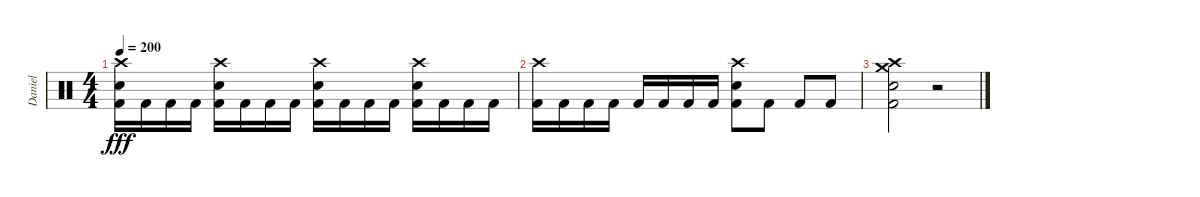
\track ("Daniel" "Daniel") {instrument percussion}
\staff {score}
\articulation defaults
\ts (4 4)
\tempo 200
\clef neutral
\ks c
("Crash high (hit)" "Electric Snare (hit)" "Kick (hit) 2").16{dy fff} "Kick (hit) 2".16 "Kick (hit) 2".16 "Kick (hit) 2".16 ("Crash high (hit)" "Electric Snare (hit)" "Kick (hit) 2").16 "Kick (hit) 2".16 "Kick (hit) 2".16 "Kick (hit) 2".16 ("Crash high (hit)" "Electric Snare (hit)" "Kick (hit) 2").16 "Kick (hit) 2".16 "Kick (hit) 2".16 "Kick (hit) 2".16 ("Crash high (hit)" "Electric Snare (hit)" "Kick (hit) 2").16 "Kick (hit) 2".16 "Kick (hit) 2".16 "Kick (hit) 2".16 |
("Crash high (hit)" "Kick (hit) 2").16 "Kick (hit) 2".16 "Kick (hit) 2".16 "Kick (hit) 2".16 "Kick (hit) 2".16 "Kick (hit) 2".16 "Kick (hit) 2".16 "Kick (hit) 2".16 ("Crash high (hit)" "Electric Snare (hit)" "Kick (hit) 2").8 "Kick (hit) 2".8 "Kick (hit) 2".8 "Kick (hit) 2".8 |
("Crash medium (hit)" "Crash high (hit)" "Electric Snare (hit)" "Kick (hit) 2").2 r.2
